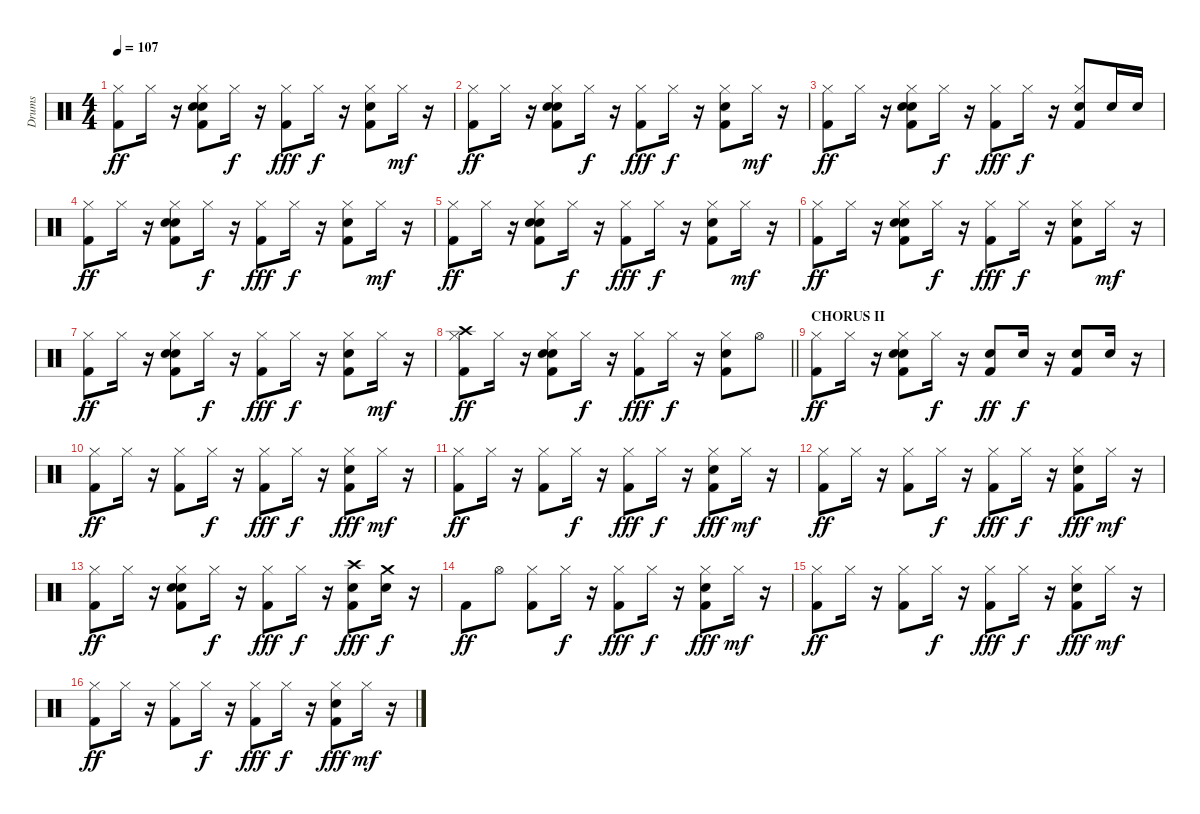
\track ("Drums" "Drums") {instrument percussion}
\staff {score}
\articulation defaults
\ts (4 4)
\tempo 107
\clef neutral
\ks c
("Kick (hit) 2" "Hi-Hat (closed)").8{dy ff} "Hi-Hat (closed)".16 r.16 ("Kick (hit) 2" "Electric Snare (hit)" "Electric Snare (hit)" "Hi-Hat (closed)").8 "Hi-Hat (closed)".16{dy f} r.16 ("Kick (hit) 2" "Hi-Hat (closed)").8{dy fff} "Hi-Hat (closed)".16{dy f} r.16 ("Kick (hit) 2" "Electric Snare (hit)" "Hi-Hat (closed)").8 "Hi-Hat (closed)".16{dy mf} r.16 |
("Kick (hit) 2" "Hi-Hat (closed)").8{dy ff} "Hi-Hat (closed)".16 r.16 ("Kick (hit) 2" "Electric Snare (hit)" "Electric Snare (hit)" "Hi-Hat (closed)").8 "Hi-Hat (closed)".16{dy f} r.16 ("Kick (hit) 2" "Hi-Hat (closed)").8{dy fff} "Hi-Hat (closed)".16{dy f} r.16 ("Kick (hit) 2" "Electric Snare (hit)" "Hi-Hat (closed)").8 "Hi-Hat (closed)".16{dy mf} r.16 |
("Kick (hit) 2" "Hi-Hat (closed)").8{dy ff} "Hi-Hat (closed)".16 r.16 ("Kick (hit) 2" "Electric Snare (hit)" "Electric Snare (hit)" "Hi-Hat (closed)").8 "Hi-Hat (closed)".16{dy f} r.16 ("Kick (hit) 2" "Hi-Hat (closed)").8{dy fff} "Hi-Hat (closed)".16{dy f} r.16 ("Kick (hit) 2" "Electric Snare (hit)" "Hi-Hat (closed)").8 "Electric Snare (hit)".16 "Electric Snare (hit)".16 |
("Kick (hit) 2" "Hi-Hat (closed)").8{dy ff} "Hi-Hat (closed)".16 r.16 ("Kick (hit) 2" "Electric Snare (hit)" "Electric Snare (hit)" "Hi-Hat (closed)").8 "Hi-Hat (closed)".16{dy f} r.16 ("Kick (hit) 2" "Hi-Hat (closed)").8{dy fff} "Hi-Hat (closed)".16{dy f} r.16 ("Kick (hit) 2" "Electric Snare (hit)" "Hi-Hat (closed)").8 "Hi-Hat (closed)".16{dy mf} r.16 |
("Kick (hit) 2" "Hi-Hat (closed)").8{dy ff} "Hi-Hat (closed)".16 r.16 ("Kick (hit) 2" "Electric Snare (hit)" "Electric Snare (hit)" "Hi-Hat (closed)").8 "Hi-Hat (closed)".16{dy f} r.16 ("Kick (hit) 2" "Hi-Hat (closed)").8{dy fff} "Hi-Hat (closed)".16{dy f} r.16 ("Kick (hit) 2" "Electric Snare (hit)" "Hi-Hat (closed)").8 "Hi-Hat (closed)".16{dy mf} r.16 |
("Kick (hit) 2" "Hi-Hat (closed)").8{dy ff} "Hi-Hat (closed)".16 r.16 ("Kick (hit) 2" "Electric Snare (hit)" "Electric Snare (hit)" "Hi-Hat (closed)").8 "Hi-Hat (closed)".16{dy f} r.16 ("Kick (hit) 2" "Hi-Hat (closed)").8{dy fff} "Hi-Hat (closed)".16{dy f} r.16 ("Kick (hit) 2" "Electric Snare (hit)" "Hi-Hat (closed)").8 "Hi-Hat (closed)".16{dy mf} r.16 |
("Kick (hit) 2" "Hi-Hat (closed)").8{dy ff} "Hi-Hat (closed)".16 r.16 ("Kick (hit) 2" "Electric Snare (hit)" "Electric Snare (hit)" "Hi-Hat (closed)").8 "Hi-Hat (closed)".16{dy f} r.16 ("Kick (hit) 2" "Hi-Hat (closed)").8{dy fff} "Hi-Hat (closed)".16{dy f} r.16 ("Kick (hit) 2" "Electric Snare (hit)" "Hi-Hat (closed)").8 "Hi-Hat (closed)".16{dy mf} r.16 |
\barLineRight lightlight
("Kick (hit) 2" "Hi-Hat (closed)" "Crash high (hit)").8{dy ff} "Hi-Hat (closed)".16 r.16 ("Kick (hit) 2" "Electric Snare (hit)" "Electric Snare (hit)" "Hi-Hat (closed)").8 "Hi-Hat (closed)".16{dy f} r.16 ("Kick (hit) 2" "Hi-Hat (closed)").8{dy fff} "Hi-Hat (closed)".16{dy f} r.16 ("Kick (hit) 2" "Electric Snare (hit)" "Hi-Hat (closed)").8 "Hi-Hat (open)".8 |
\section ("" "CHORUS II")
("Kick (hit) 2" "Hi-Hat (closed)").8{dy ff} "Hi-Hat (closed)".16 r.16 ("Kick (hit) 2" "Electric Snare (hit)" "Electric Snare (hit)" "Hi-Hat (closed)").8 "Hi-Hat (closed)".16{dy f} r.16 ("Kick (hit) 2" "Electric Snare (hit)").8{dy ff} "Electric Snare (hit)".16{dy f} r.16 ("Kick (hit) 2" "Electric Snare (hit)").8 "Electric Snare (hit)".16 r.16 |
("Kick (hit) 2" "Hi-Hat (closed)").8{dy ff} "Hi-Hat (closed)".16 r.16 ("Kick (hit) 2" "Hi-Hat (closed)").8 "Hi-Hat (closed)".16{dy f} r.16 ("Kick (hit) 2" "Hi-Hat (closed)").8{dy fff} "Hi-Hat (closed)".16{dy f} r.16 ("Kick (hit) 2" "Electric Snare (hit)" "Hi-Hat (closed)").8{dy fff} "Hi-Hat (closed)".16{dy mf} r.16 |
("Kick (hit) 2" "Hi-Hat (closed)").8{dy ff} "Hi-Hat (closed)".16 r.16 ("Kick (hit) 2" "Hi-Hat (closed)").8 "Hi-Hat (closed)".16{dy f} r.16 ("Kick (hit) 2" "Hi-Hat (closed)").8{dy fff} "Hi-Hat (closed)".16{dy f} r.16 ("Kick (hit) 2" "Electric Snare (hit)" "Hi-Hat (closed)").8{dy fff} "Hi-Hat (closed)".16{dy mf} r.16 |
("Kick (hit) 2" "Hi-Hat (closed)").8{dy ff} "Hi-Hat (closed)".16 r.16 ("Kick (hit) 2" "Hi-Hat (closed)").8 "Hi-Hat (closed)".16{dy f} r.16 ("Kick (hit) 2" "Hi-Hat (closed)").8{dy fff} "Hi-Hat (closed)".16{dy f} r.16 ("Kick (hit) 2" "Electric Snare (hit)" "Hi-Hat (closed)").8{dy fff} "Hi-Hat (closed)".16{dy mf} r.16 |
("Kick (hit) 2" "Hi-Hat (closed)").8{dy ff} "Hi-Hat (closed)".16 r.16 ("Kick (hit) 2" "Electric Snare (hit)" "Electric Snare (hit)" "Hi-Hat (closed)").8 "Hi-Hat (closed)".16{dy f} r.16 ("Kick (hit) 2" "Hi-Hat (closed)").8{dy fff} "Hi-Hat (closed)".16{dy f} r.16 ("Kick (hit) 2" "Electric Snare (hit)" "Crash high (hit)").8{dy fff} ("Electric Snare (hit)" "Crash medium (hit)").16{dy f} r.16 |
"Kick (hit) 2".8{dy ff} "Hi-Hat (open)".8 ("Kick (hit) 2" "Hi-Hat (closed)").8 "Hi-Hat (closed)".16{dy f} r.16 ("Kick (hit) 2" "Hi-Hat (closed)").8{dy fff} "Hi-Hat (closed)".16{dy f} r.16 ("Kick (hit) 2" "Electric Snare (hit)" "Hi-Hat (closed)").8{dy fff} "Hi-Hat (closed)".16{dy mf} r.16 |
("Kick (hit) 2" "Hi-Hat (closed)").8{dy ff} "Hi-Hat (closed)".16 r.16 ("Kick (hit) 2" "Hi-Hat (closed)").8 "Hi-Hat (closed)".16{dy f} r.16 ("Kick (hit) 2" "Hi-Hat (closed)").8{dy fff} "Hi-Hat (closed)".16{dy f} r.16 ("Kick (hit) 2" "Electric Snare (hit)" "Hi-Hat (closed)").8{dy fff} "Hi-Hat (closed)".16{dy mf} r.16 |
("Kick (hit) 2" "Hi-Hat (closed)").8{dy ff} "Hi-Hat (closed)".16 r.16 ("Kick (hit) 2" "Hi-Hat (closed)").8 "Hi-Hat (closed)".16{dy f} r.16 ("Kick (hit) 2" "Hi-Hat (closed)").8{dy fff} "Hi-Hat (closed)".16{dy f} r.16 ("Kick (hit) 2" "Electric Snare (hit)" "Hi-Hat (closed)").8{dy fff} "Hi-Hat (closed)".16{dy mf} r.16
